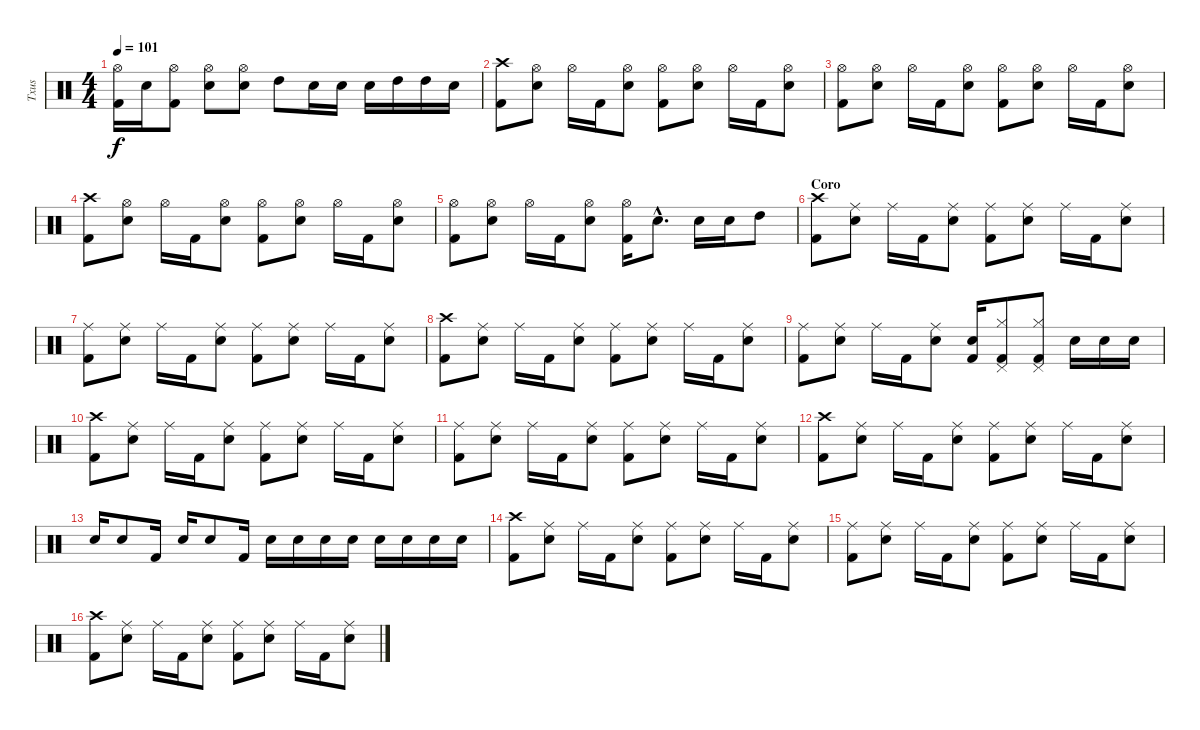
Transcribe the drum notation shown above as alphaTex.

\track ("Txus" "Txus") {instrument percussion}
\staff {score}
\articulation defaults
\ts (4 4)
\tempo 101
\clef neutral
\ks c
("Kick (hit) 2" "Hi-Hat (open)").16{dy f} "Electric Snare (hit)".16 ("Kick (hit) 2" "Hi-Hat (open)").8 ("Electric Snare (hit)" "Hi-Hat (open)").8 ("Electric Snare (hit)" "Hi-Hat (open)").8 "High Tom (hit)".8 "Electric Snare (hit)".16 "Electric Snare (hit)".16 "Electric Snare (hit)".16 "High Tom (hit)".16 "High Tom (hit)".16 "Electric Snare (hit)".16 |
("Kick (hit) 2" "Crash high (hit)").8 ("Electric Snare (hit)" "Hi-Hat (open)").8 "Hi-Hat (open)".16 "Kick (hit) 2".16 ("Electric Snare (hit)" "Hi-Hat (open)").8 ("Kick (hit) 2" "Hi-Hat (open)").8 ("Electric Snare (hit)" "Hi-Hat (open)").8 "Hi-Hat (open)".16 "Kick (hit) 2".16 ("Electric Snare (hit)" "Hi-Hat (open)").8 |
("Kick (hit) 2" "Hi-Hat (open)").8 ("Electric Snare (hit)" "Hi-Hat (open)").8 "Hi-Hat (open)".16 "Kick (hit) 2".16 ("Electric Snare (hit)" "Hi-Hat (open)").8 ("Kick (hit) 2" "Hi-Hat (open)").8 ("Electric Snare (hit)" "Hi-Hat (open)").8 "Hi-Hat (open)".16 "Kick (hit) 2".16 ("Electric Snare (hit)" "Hi-Hat (open)").8 |
("Kick (hit) 2" "Crash high (hit)").8 ("Electric Snare (hit)" "Hi-Hat (open)").8 "Hi-Hat (open)".16 "Kick (hit) 2".16 ("Electric Snare (hit)" "Hi-Hat (open)").8 ("Kick (hit) 2" "Hi-Hat (open)").8 ("Electric Snare (hit)" "Hi-Hat (open)").8 "Hi-Hat (open)".16 "Kick (hit) 2".16 ("Electric Snare (hit)" "Hi-Hat (open)").8 |
("Kick (hit) 2" "Hi-Hat (open)").8 ("Electric Snare (hit)" "Hi-Hat (open)").8 "Hi-Hat (open)".16 "Kick (hit) 2".16 ("Electric Snare (hit)" "Hi-Hat (open)").8 ("Kick (hit) 2" "Hi-Hat (open)").16 "Electric Snare (hit)"{hac}.8{d} "Electric Snare (hit)".16 "Electric Snare (hit)".16 "High Tom (hit)".8 |
\section ("" "Coro")
("Kick (hit) 2" "Crash high (hit)").8 ("Electric Snare (hit)" "Ride (middle)").8 "Ride (middle)".16 "Kick (hit) 2".16 ("Electric Snare (hit)" "Ride (middle)").8 ("Kick (hit) 2" "Ride (middle)").8 ("Electric Snare (hit)" "Ride (middle)").8 "Ride (middle)".16 "Kick (hit) 2".16 ("Electric Snare (hit)" "Ride (middle)").8 |
("Kick (hit) 2" "Ride (middle)").8 ("Electric Snare (hit)" "Ride (middle)").8 "Ride (middle)".16 "Kick (hit) 2".16 ("Electric Snare (hit)" "Ride (middle)").8 ("Kick (hit) 2" "Ride (middle)").8 ("Electric Snare (hit)" "Ride (middle)").8 "Ride (middle)".16 "Kick (hit) 2".16 ("Electric Snare (hit)" "Ride (middle)").8 |
("Kick (hit) 2" "Crash high (hit)").8 ("Electric Snare (hit)" "Ride (middle)").8 "Ride (middle)".16 "Kick (hit) 2".16 ("Electric Snare (hit)" "Ride (middle)").8 ("Kick (hit) 2" "Ride (middle)").8 ("Electric Snare (hit)" "Ride (middle)").8 "Ride (middle)".16 "Kick (hit) 2".16 ("Electric Snare (hit)" "Ride (middle)").8 |
("Kick (hit) 2" "Ride (middle)").8 ("Electric Snare (hit)" "Ride (middle)").8 "Ride (middle)".16 "Kick (hit) 2".16 ("Electric Snare (hit)" "Ride (middle)").8 ("Kick (hit) 2" "Electric Snare (hit)").16 ("Kick (hit) 2" "Hi-Hat (closed)" "Pedal Hi-Hat (hit)").8 ("Kick (hit) 2" "Hi-Hat (closed)" "Pedal Hi-Hat (hit)").8 "Electric Snare (hit)".16 "Electric Snare (hit)".16 "Electric Snare (hit)".16 |
("Kick (hit) 2" "Crash high (hit)").8 ("Electric Snare (hit)" "Ride (middle)").8 "Ride (middle)".16 "Kick (hit) 2".16 ("Electric Snare (hit)" "Ride (middle)").8 ("Kick (hit) 2" "Ride (middle)").8 ("Electric Snare (hit)" "Ride (middle)").8 "Ride (middle)".16 "Kick (hit) 2".16 ("Electric Snare (hit)" "Ride (middle)").8 |
("Kick (hit) 2" "Ride (middle)").8 ("Electric Snare (hit)" "Ride (middle)").8 "Ride (middle)".16 "Kick (hit) 2".16 ("Electric Snare (hit)" "Ride (middle)").8 ("Kick (hit) 2" "Ride (middle)").8 ("Electric Snare (hit)" "Ride (middle)").8 "Ride (middle)".16 "Kick (hit) 2".16 ("Electric Snare (hit)" "Ride (middle)").8 |
("Kick (hit) 2" "Crash high (hit)").8 ("Electric Snare (hit)" "Ride (middle)").8 "Ride (middle)".16 "Kick (hit) 2".16 ("Electric Snare (hit)" "Ride (middle)").8 ("Kick (hit) 2" "Ride (middle)").8 ("Electric Snare (hit)" "Ride (middle)").8 "Ride (middle)".16 "Kick (hit) 2".16 ("Electric Snare (hit)" "Ride (middle)").8 |
"Electric Snare (hit)".16 "Electric Snare (hit)".8 "Kick (hit) 2".16 "Electric Snare (hit)".16 "Electric Snare (hit)".8 "Kick (hit) 2".16 "Electric Snare (hit)".16 "Electric Snare (hit)".16 "Electric Snare (hit)".16 "Electric Snare (hit)".16 "Electric Snare (hit)".16 "Electric Snare (hit)".16 "Electric Snare (hit)".16 "Electric Snare (hit)".16 |
("Kick (hit) 2" "Crash high (hit)").8 ("Electric Snare (hit)" "Ride (middle)").8 "Ride (middle)".16 "Kick (hit) 2".16 ("Electric Snare (hit)" "Ride (middle)").8 ("Kick (hit) 2" "Ride (middle)").8 ("Electric Snare (hit)" "Ride (middle)").8 "Ride (middle)".16 "Kick (hit) 2".16 ("Electric Snare (hit)" "Ride (middle)").8 |
("Kick (hit) 2" "Ride (middle)").8 ("Electric Snare (hit)" "Ride (middle)").8 "Ride (middle)".16 "Kick (hit) 2".16 ("Electric Snare (hit)" "Ride (middle)").8 ("Kick (hit) 2" "Ride (middle)").8 ("Electric Snare (hit)" "Ride (middle)").8 "Ride (middle)".16 "Kick (hit) 2".16 ("Electric Snare (hit)" "Ride (middle)").8 |
("Kick (hit) 2" "Crash high (hit)").8 ("Electric Snare (hit)" "Ride (middle)").8 "Ride (middle)".16 "Kick (hit) 2".16 ("Electric Snare (hit)" "Ride (middle)").8 ("Kick (hit) 2" "Ride (middle)").8 ("Electric Snare (hit)" "Ride (middle)").8 "Ride (middle)".16 "Kick (hit) 2".16 ("Electric Snare (hit)" "Ride (middle)").8
